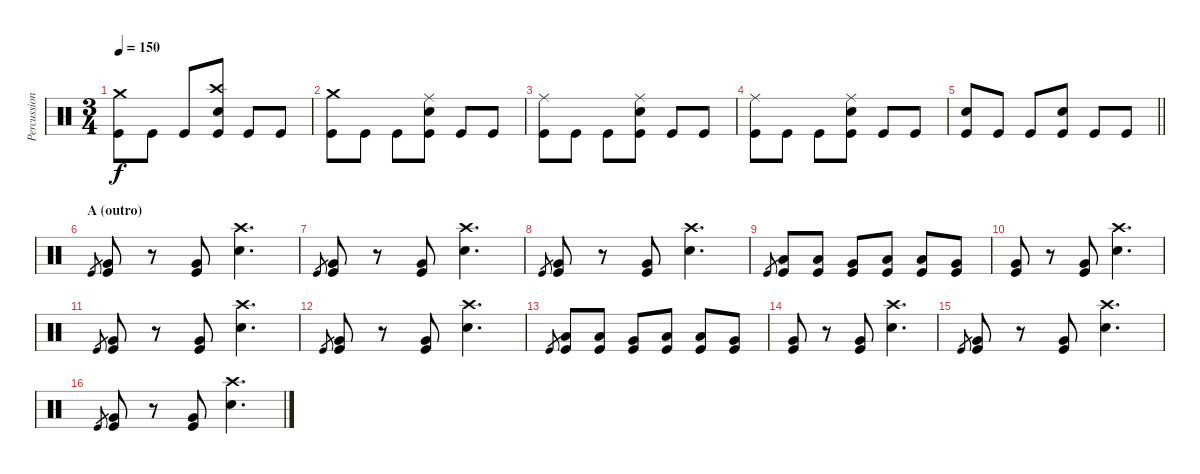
\track ("Percussion" "Percussion") {instrument percussion}
\staff {score}
\articulation defaults
\ts (3 4)
\tempo 150
\clef neutral
\ks c
("Crash medium (hit)" "Kick (hit)").8{dy f} "Kick (hit)".8 "Kick (hit)".8 ("Crash high (hit)" "Snare (hit) 2" "Kick (hit)").8 "Kick (hit)".8 "Kick (hit)".8 |
("Crash medium (hit)" "Kick (hit)").8 "Kick (hit)".8 "Kick (hit)".8 ("Ride (middle)" "Snare (hit) 2" "Kick (hit)").8 "Kick (hit)".8 "Kick (hit)".8 |
("Ride (middle)" "Kick (hit)").8 "Kick (hit)".8 "Kick (hit)".8 ("Ride (middle)" "Snare (hit) 2" "Kick (hit)").8 "Kick (hit)".8 "Kick (hit)".8 |
("Ride (middle)" "Kick (hit)").8 "Kick (hit)".8 "Kick (hit)".8 ("Ride (middle)" "Snare (hit) 2" "Kick (hit)").8 "Kick (hit)".8 "Kick (hit)".8 |
\barLineRight lightlight
("Snare (hit) 2" "Kick (hit)").8 "Kick (hit)".8 "Kick (hit)".8 ("Snare (hit) 2" "Kick (hit)").8 "Kick (hit)".8 "Kick (hit)".8 |
\section ("" "A (outro)")
"Kick (hit)".8{gr} ("Very Low Tom (hit)" "Kick (hit)").8 r.8 ("Very Low Tom (hit)" "Kick (hit)").8 ("Crash high (hit)" "Snare (hit) 2").4{d} |
"Kick (hit)".8{gr} ("Very Low Tom (hit)" "Kick (hit)").8 r.8 ("Very Low Tom (hit)" "Kick (hit)").8 ("Crash high (hit)" "Snare (hit) 2").4{d} |
"Kick (hit)".8{gr} ("Very Low Tom (hit)" "Kick (hit)").8 r.8 ("Very Low Tom (hit)" "Kick (hit)").8 ("Crash high (hit)" "Snare (hit) 2").4{d} |
"Kick (hit)".8{gr} ("Low Tom (hit)" "Kick (hit)").8 ("Low Tom (hit)" "Kick (hit)").8 ("Very Low Tom (hit)" "Kick (hit)").8 ("Low Tom (hit)" "Kick (hit)").8 ("Low Tom (hit)" "Kick (hit)").8 ("Very Low Tom (hit)" "Kick (hit)").8 |
("Very Low Tom (hit)" "Kick (hit)").8 r.8 ("Very Low Tom (hit)" "Kick (hit)").8 ("Crash high (hit)" "Snare (hit) 2").4{d} |
"Kick (hit)".8{gr} ("Very Low Tom (hit)" "Kick (hit)").8 r.8 ("Very Low Tom (hit)" "Kick (hit)").8 ("Crash high (hit)" "Snare (hit) 2").4{d} |
"Kick (hit)".8{gr} ("Very Low Tom (hit)" "Kick (hit)").8 r.8 ("Very Low Tom (hit)" "Kick (hit)").8 ("Crash high (hit)" "Snare (hit) 2").4{d} |
"Kick (hit)".8{gr} ("Low Tom (hit)" "Kick (hit)").8 ("Low Tom (hit)" "Kick (hit)").8 ("Very Low Tom (hit)" "Kick (hit)").8 ("Low Tom (hit)" "Kick (hit)").8 ("Low Tom (hit)" "Kick (hit)").8 ("Very Low Tom (hit)" "Kick (hit)").8 |
("Very Low Tom (hit)" "Kick (hit)").8 r.8 ("Very Low Tom (hit)" "Kick (hit)").8 ("Crash high (hit)" "Snare (hit) 2").4{d} |
"Kick (hit)".8{gr} ("Very Low Tom (hit)" "Kick (hit)").8 r.8 ("Very Low Tom (hit)" "Kick (hit)").8 ("Crash high (hit)" "Snare (hit) 2").4{d} |
"Kick (hit)".8{gr} ("Very Low Tom (hit)" "Kick (hit)").8 r.8 ("Very Low Tom (hit)" "Kick (hit)").8 ("Crash high (hit)" "Snare (hit) 2").4{d}
